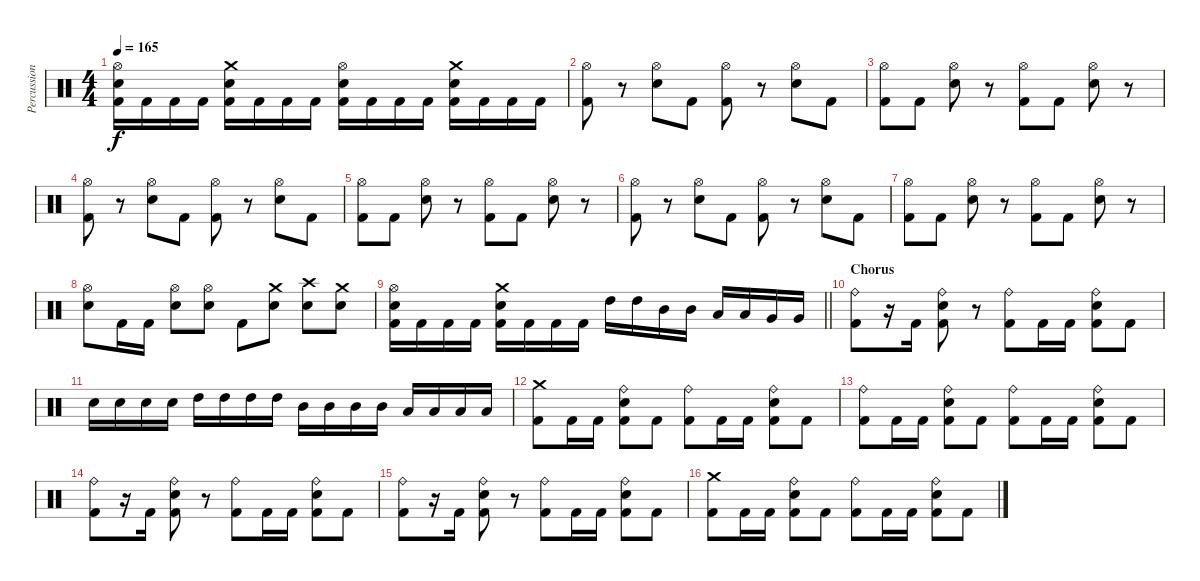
\track ("Percussion" "Percussion") {instrument percussion}
\staff {score}
\articulation defaults
\ts (4 4)
\tempo 165
\clef neutral
\ks c
("Hi-Hat (open)" "Electric Snare (hit)" "Kick (hit) 2").16{dy f} "Kick (hit) 2".16 "Kick (hit) 2".16 "Kick (hit) 2".16 ("Crash medium (hit)" "Electric Snare (hit)" "Kick (hit) 2").16 "Kick (hit) 2".16 "Kick (hit) 2".16 "Kick (hit) 2".16 ("Hi-Hat (open)" "Electric Snare (hit)" "Kick (hit) 2").16 "Kick (hit) 2".16 "Kick (hit) 2".16 "Kick (hit) 2".16 ("Crash medium (hit)" "Electric Snare (hit)" "Kick (hit) 2").16 "Kick (hit) 2".16 "Kick (hit) 2".16 "Kick (hit) 2".16 |
("Hi-Hat (open)" "Kick (hit) 2").8 r.8 ("Hi-Hat (open)" "Electric Snare (hit)").8 "Kick (hit) 2".8 ("Hi-Hat (open)" "Kick (hit) 2").8 r.8 ("Hi-Hat (open)" "Electric Snare (hit)").8 "Kick (hit) 2".8 |
("Hi-Hat (open)" "Kick (hit) 2").8 "Kick (hit) 2".8 ("Hi-Hat (open)" "Electric Snare (hit)").8 r.8 ("Hi-Hat (open)" "Kick (hit) 2").8 "Kick (hit) 2".8 ("Hi-Hat (open)" "Electric Snare (hit)").8 r.8 |
("Hi-Hat (open)" "Kick (hit) 2").8 r.8 ("Hi-Hat (open)" "Electric Snare (hit)").8 "Kick (hit) 2".8 ("Hi-Hat (open)" "Kick (hit) 2").8 r.8 ("Hi-Hat (open)" "Electric Snare (hit)").8 "Kick (hit) 2".8 |
("Hi-Hat (open)" "Kick (hit) 2").8 "Kick (hit) 2".8 ("Hi-Hat (open)" "Electric Snare (hit)").8 r.8 ("Hi-Hat (open)" "Kick (hit) 2").8 "Kick (hit) 2".8 ("Hi-Hat (open)" "Electric Snare (hit)").8 r.8 |
("Hi-Hat (open)" "Kick (hit) 2").8 r.8 ("Hi-Hat (open)" "Electric Snare (hit)").8 "Kick (hit) 2".8 ("Hi-Hat (open)" "Kick (hit) 2").8 r.8 ("Hi-Hat (open)" "Electric Snare (hit)").8 "Kick (hit) 2".8 |
("Hi-Hat (open)" "Kick (hit) 2").8 "Kick (hit) 2".8 ("Hi-Hat (open)" "Electric Snare (hit)").8 r.8 ("Hi-Hat (open)" "Kick (hit) 2").8 "Kick (hit) 2".8 ("Hi-Hat (open)" "Electric Snare (hit)").8 r.8 |
("Hi-Hat (open)" "Electric Snare (hit)").8 "Kick (hit) 2".16 "Kick (hit) 2".16 ("Hi-Hat (open)" "Electric Snare (hit)").8 ("Hi-Hat (open)" "Electric Snare (hit)").8 "Kick (hit) 2".8 ("Crash medium (hit)" "Electric Snare (hit)").8 ("Crash high (hit)" "Electric Snare (hit)").8 ("Crash medium (hit)" "Electric Snare (hit)").8 |
\barLineRight lightlight
("Hi-Hat (open)" "Electric Snare (hit)" "Kick (hit) 2").16 "Kick (hit) 2".16 "Kick (hit) 2".16 "Kick (hit) 2".16 ("Crash medium (hit)" "Electric Snare (hit)" "Kick (hit) 2").16 "Kick (hit) 2".16 "Kick (hit) 2".16 "Kick (hit) 2".16 "High Tom (hit)".16 "High Tom (hit)".16 "Mid Tom (hit)".16 "Mid Tom (hit)".16 "Low Tom (hit)".16 "Low Tom (hit)".16 "Very Low Tom (hit)".16 "Very Low Tom (hit)".16 |
\section ("" "Chorus")
("Ride (bell)" "Kick (hit) 2").8 r.16 "Kick (hit) 2".16 ("Ride (bell)" "Electric Snare (hit)" "Kick (hit) 2").8 r.8 ("Ride (bell)" "Kick (hit) 2").8 "Kick (hit) 2".16 "Kick (hit) 2".16 ("Ride (bell)" "Electric Snare (hit)" "Kick (hit) 2").8 "Kick (hit) 2".8 |
"Electric Snare (hit)".16 "Electric Snare (hit)".16 "Electric Snare (hit)".16 "Electric Snare (hit)".16 "High Tom (hit)".16 "High Tom (hit)".16 "High Tom (hit)".16 "High Tom (hit)".16 "Mid Tom (hit)".16 "Mid Tom (hit)".16 "Mid Tom (hit)".16 "Mid Tom (hit)".16 "Low Tom (hit)".16 "Low Tom (hit)".16 "Low Tom (hit)".16 "Low Tom (hit)".16 |
("Crash medium (hit)" "Kick (hit) 2").8 "Kick (hit) 2".16 "Kick (hit) 2".16 ("Ride (bell)" "Electric Snare (hit)" "Kick (hit) 2").8 "Kick (hit) 2".8 ("Ride (bell)" "Kick (hit) 2").8 "Kick (hit) 2".16 "Kick (hit) 2".16 ("Ride (bell)" "Electric Snare (hit)" "Kick (hit) 2").8 "Kick (hit) 2".8 |
("Ride (bell)" "Kick (hit) 2").8 "Kick (hit) 2".16 "Kick (hit) 2".16 ("Ride (bell)" "Electric Snare (hit)" "Kick (hit) 2").8 "Kick (hit) 2".8 ("Ride (bell)" "Kick (hit) 2").8 "Kick (hit) 2".16 "Kick (hit) 2".16 ("Ride (bell)" "Electric Snare (hit)" "Kick (hit) 2").8 "Kick (hit) 2".8 |
("Ride (bell)" "Kick (hit) 2").8 r.16 "Kick (hit) 2".16 ("Ride (bell)" "Electric Snare (hit)" "Kick (hit) 2").8 r.8 ("Ride (bell)" "Kick (hit) 2").8 "Kick (hit) 2".16 "Kick (hit) 2".16 ("Ride (bell)" "Electric Snare (hit)" "Kick (hit) 2").8 "Kick (hit) 2".8 |
("Ride (bell)" "Kick (hit) 2").8 r.16 "Kick (hit) 2".16 ("Ride (bell)" "Electric Snare (hit)" "Kick (hit) 2").8 r.8 ("Ride (bell)" "Kick (hit) 2").8 "Kick (hit) 2".16 "Kick (hit) 2".16 ("Ride (bell)" "Electric Snare (hit)" "Kick (hit) 2").8 "Kick (hit) 2".8 |
("Crash medium (hit)" "Kick (hit) 2").8 "Kick (hit) 2".16 "Kick (hit) 2".16 ("Ride (bell)" "Electric Snare (hit)" "Kick (hit) 2").8 "Kick (hit) 2".8 ("Ride (bell)" "Kick (hit) 2").8 "Kick (hit) 2".16 "Kick (hit) 2".16 ("Ride (bell)" "Electric Snare (hit)" "Kick (hit) 2").8 "Kick (hit) 2".8
